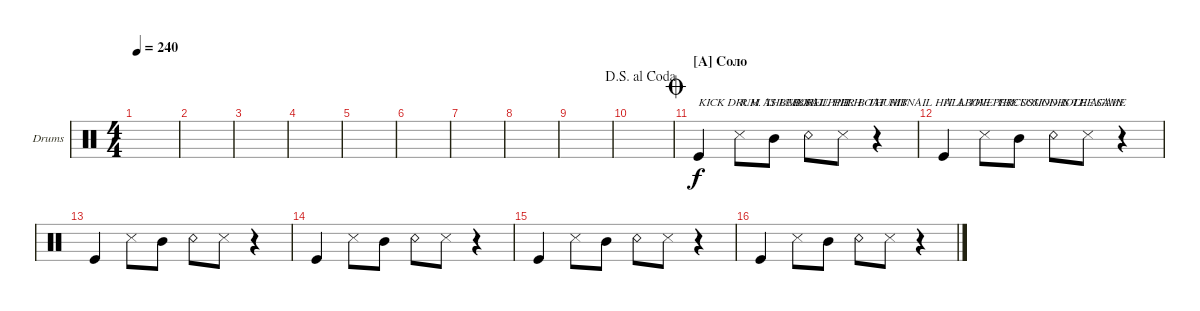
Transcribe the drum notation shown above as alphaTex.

\defaultSystemsLayout 4
\bracketExtendMode groupsimilarinstruments
\firstSystemTrackNameOrientation horizontal
\otherSystemsTrackNameOrientation horizontal
\track ("Drumkit" "Drums") {instrument percussion}
\staff {score}
\articulation defaults
\ts (4 4)
\tempo 240
\clef neutral
\ks c
|
|
|
|
|
|
|
|
|
\jump dalsegnoalcoda
|
\section ("A" "Соло")
\jump coda "Kick (hit)".4{txt "KICK DRUM AS BEFORE"} "Snare (side stick) 3".8{txt "R.H. THUMBNAIL HIT"} "Mid Tom (hit)".8{txt "       L.H. UPPER BOAT HIT "} "Snare (rim shot)".8 "Snare (side stick) 3".8{txt "R.H. THUMBNAIL HIT ABOVE THE SOUNDHOLE AGAIN"}
r.4 |
"Kick (hit)".4{txt "ALL THE PERCUSSION IS THE SAME"} "Snare (side stick) 3".8 "Mid Tom (hit)".8 "Snare (rim shot)".8 "Snare (side stick) 3".8 r.4 |
"Kick (hit)".4 "Snare (side stick) 3".8 "Mid Tom (hit)".8 "Snare (rim shot)".8 "Snare (side stick) 3".8 r.4 |
"Kick (hit)".4 "Snare (side stick) 3".8 "Mid Tom (hit)".8 "Snare (rim shot)".8 "Snare (side stick) 3".8 r.4 |
"Kick (hit)".4 "Snare (side stick) 3".8 "Mid Tom (hit)".8 "Snare (rim shot)".8 "Snare (side stick) 3".8 r.4 |
"Kick (hit)".4 "Snare (side stick) 3".8 "Mid Tom (hit)".8 "Snare (rim shot)".8 "Snare (side stick) 3".8 r.4
